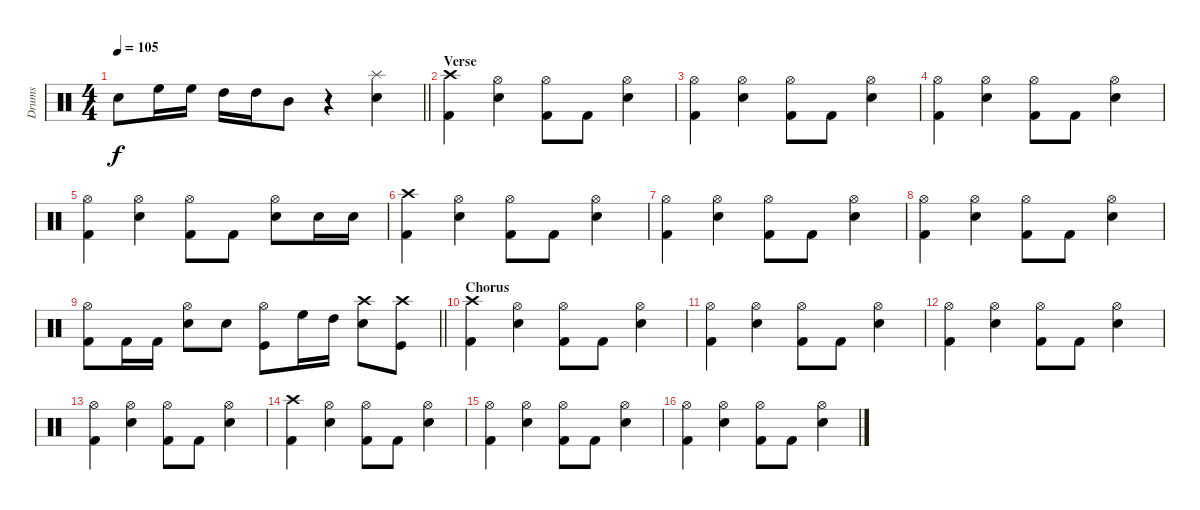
\track ("Drums" "Drums") {instrument percussion}
\staff {score}
\articulation defaults
\ts (4 4)
\tempo 105
\clef neutral
\barLineRight lightlight
\ks c "Electric Snare (hit)".8{dy f} "High Floor Tom (hit)".16 "High Floor Tom (hit)".16 "High Tom (hit)".16 "High Tom (hit)".16 "Mid Tom (hit)".8
r.4 ("Splash (hit)" "Electric Snare (hit)").4 |
\section ("" "Verse")
("Crash high (hit)" "Kick (hit) 2").4 ("Electric Snare (hit)" "Hi-Hat (open)").4 ("Hi-Hat (open)" "Kick (hit) 2").8 "Kick (hit) 2".8 ("Hi-Hat (open)" "Electric Snare (hit)").4 |
("Hi-Hat (open)" "Kick (hit) 2").4 ("Electric Snare (hit)" "Hi-Hat (open)").4 ("Hi-Hat (open)" "Kick (hit) 2").8 "Kick (hit) 2".8 ("Hi-Hat (open)" "Electric Snare (hit)").4 |
("Hi-Hat (open)" "Kick (hit) 2").4 ("Electric Snare (hit)" "Hi-Hat (open)").4 ("Hi-Hat (open)" "Kick (hit) 2").8 "Kick (hit) 2".8 ("Hi-Hat (open)" "Electric Snare (hit)").4 |
("Hi-Hat (open)" "Kick (hit) 2").4 ("Electric Snare (hit)" "Hi-Hat (open)").4 ("Hi-Hat (open)" "Kick (hit) 2").8 "Kick (hit) 2".8 ("Hi-Hat (open)" "Electric Snare (hit)").8 "Electric Snare (hit)".16 "Electric Snare (hit)".16 |
("Crash high (hit)" "Kick (hit) 2").4 ("Electric Snare (hit)" "Hi-Hat (open)").4 ("Hi-Hat (open)" "Kick (hit) 2").8 "Kick (hit) 2".8 ("Hi-Hat (open)" "Electric Snare (hit)").4 |
("Hi-Hat (open)" "Kick (hit) 2").4 ("Electric Snare (hit)" "Hi-Hat (open)").4 ("Hi-Hat (open)" "Kick (hit) 2").8 "Kick (hit) 2".8 ("Hi-Hat (open)" "Electric Snare (hit)").4 |
("Hi-Hat (open)" "Kick (hit) 2").4 ("Electric Snare (hit)" "Hi-Hat (open)").4 ("Hi-Hat (open)" "Kick (hit) 2").8 "Kick (hit) 2".8 ("Hi-Hat (open)" "Electric Snare (hit)").4 |
\barLineRight lightlight
("Kick (hit) 2" "Hi-Hat (open)").8 "Kick (hit) 2".16 "Kick (hit) 2".16 ("Hi-Hat (open)" "Electric Snare (hit)").8 "Electric Snare (hit)".8 ("Kick (hit)" "Hi-Hat (open)").8 "High Floor Tom (hit)".16 "High Tom (hit)".16 ("Crash high (hit)" "Electric Snare (hit)").8 ("Kick (hit)" "Crash high (hit)").8 |
\section ("" "Chorus")
("Crash high (hit)" "Kick (hit) 2").4 ("Electric Snare (hit)" "Hi-Hat (open)").4 ("Hi-Hat (open)" "Kick (hit) 2").8 "Kick (hit) 2".8 ("Hi-Hat (open)" "Electric Snare (hit)").4 |
("Hi-Hat (open)" "Kick (hit) 2").4 ("Electric Snare (hit)" "Hi-Hat (open)").4 ("Hi-Hat (open)" "Kick (hit) 2").8 "Kick (hit) 2".8 ("Hi-Hat (open)" "Electric Snare (hit)").4 |
("Hi-Hat (open)" "Kick (hit) 2").4 ("Electric Snare (hit)" "Hi-Hat (open)").4 ("Hi-Hat (open)" "Kick (hit) 2").8 "Kick (hit) 2".8 ("Hi-Hat (open)" "Electric Snare (hit)").4 |
("Hi-Hat (open)" "Kick (hit) 2").4 ("Electric Snare (hit)" "Hi-Hat (open)").4 ("Hi-Hat (open)" "Kick (hit) 2").8 "Kick (hit) 2".8 ("Hi-Hat (open)" "Electric Snare (hit)").4 |
("Crash high (hit)" "Kick (hit) 2").4 ("Electric Snare (hit)" "Hi-Hat (open)").4 ("Hi-Hat (open)" "Kick (hit) 2").8 "Kick (hit) 2".8 ("Hi-Hat (open)" "Electric Snare (hit)").4 |
("Hi-Hat (open)" "Kick (hit) 2").4 ("Electric Snare (hit)" "Hi-Hat (open)").4 ("Hi-Hat (open)" "Kick (hit) 2").8 "Kick (hit) 2".8 ("Hi-Hat (open)" "Electric Snare (hit)").4 |
("Hi-Hat (open)" "Kick (hit) 2").4 ("Electric Snare (hit)" "Hi-Hat (open)").4 ("Hi-Hat (open)" "Kick (hit) 2").8 "Kick (hit) 2".8 ("Hi-Hat (open)" "Electric Snare (hit)").4
